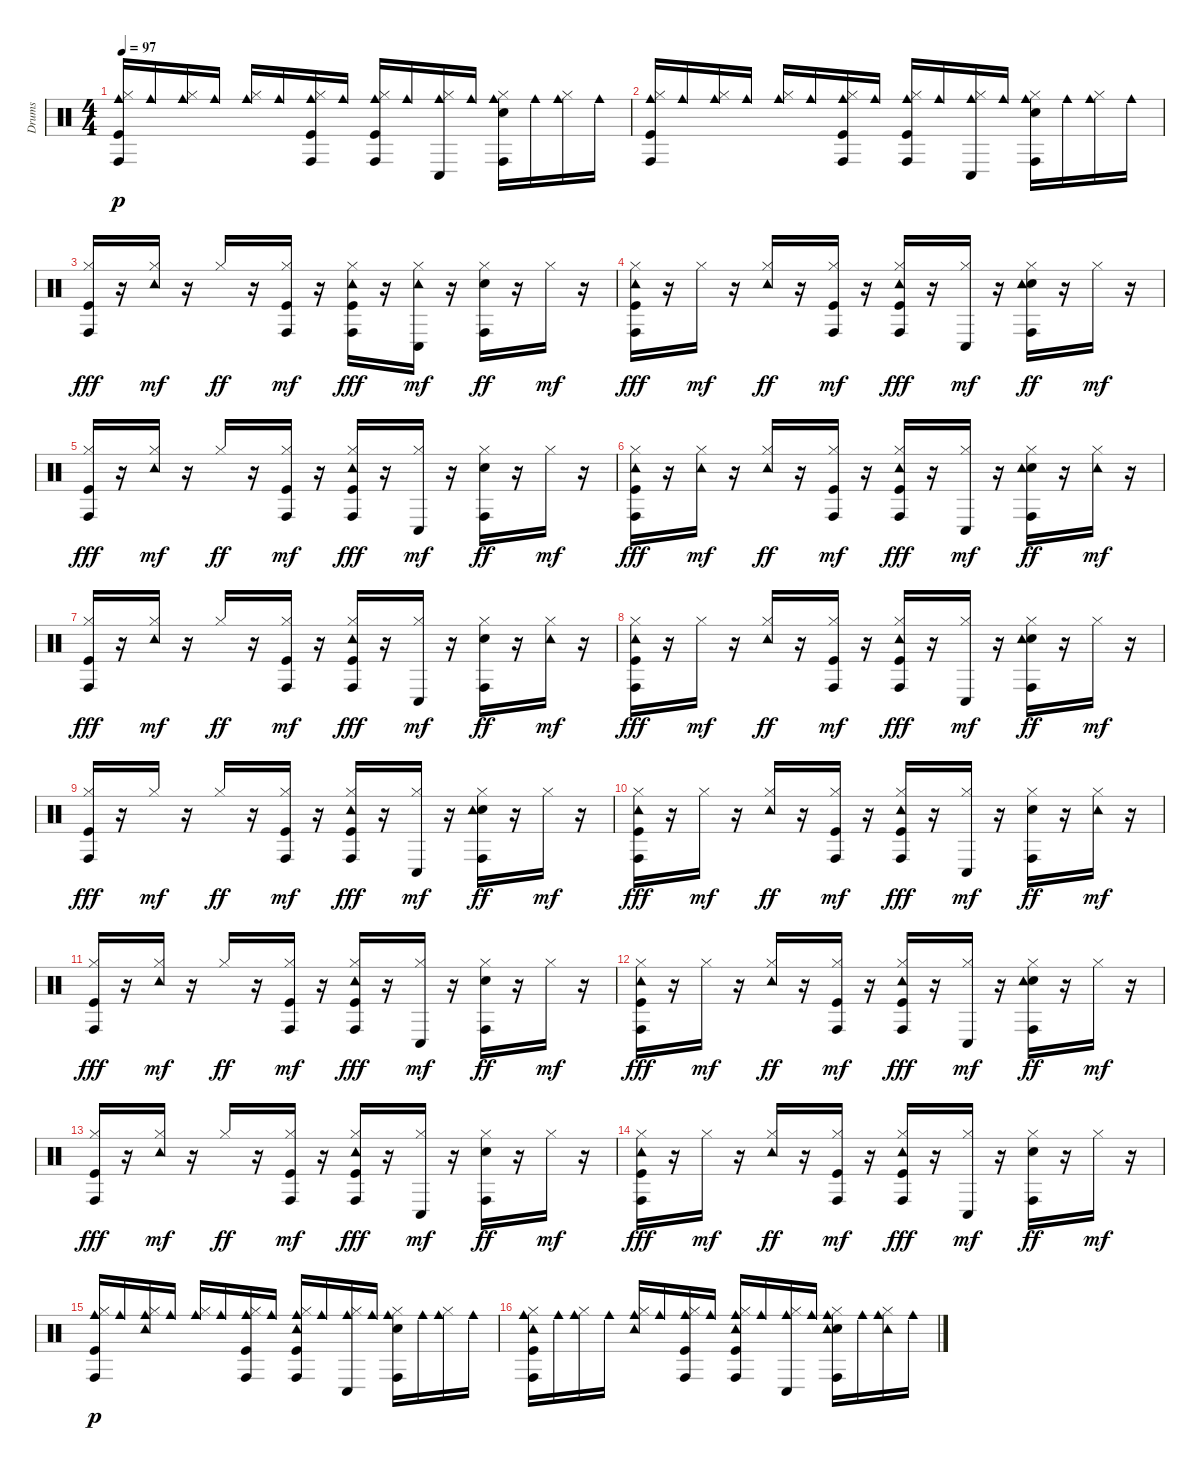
\track ("Drums" "Drums") {instrument percussion}
\staff {score}
\articulation defaults
\ts (4 4)
\tempo 97
\clef neutral
\ks c
("Kick (hit)" "Hi-Hat (closed)" "Cowbell medium (hit)" "Conga high (hit)").16{dy p} "Cowbell medium (hit)".16 ("Hi-Hat (closed)" "Cowbell medium (hit)").16 "Cowbell medium (hit)".16 ("Hi-Hat (closed)" "Cowbell medium (hit)").16 "Cowbell medium (hit)".16 ("Kick (hit)" "Hi-Hat (closed)" "Cowbell medium (hit)" "Conga high (hit)").16 "Cowbell medium (hit)".16 ("Kick (hit)" "Hi-Hat (closed)" "Cowbell medium (hit)" "Conga high (hit)").16 "Cowbell medium (hit)".16 ("Conga low (hit)" "Hi-Hat (closed)" "Cowbell medium (hit)").16 "Cowbell medium (hit)".16 ("Conga high (hit)" "Snare (hit) 2" "Hi-Hat (closed)" "Cowbell medium (hit)").16 "Cowbell medium (hit)".16 ("Hi-Hat (closed)" "Cowbell medium (hit)").16 "Cowbell medium (hit)".16 |
("Kick (hit)" "Hi-Hat (closed)" "Cowbell medium (hit)" "Conga high (hit)").16 "Cowbell medium (hit)".16 ("Hi-Hat (closed)" "Cowbell medium (hit)").16 "Cowbell medium (hit)".16 ("Hi-Hat (closed)" "Cowbell medium (hit)").16 "Cowbell medium (hit)".16 ("Kick (hit)" "Hi-Hat (closed)" "Cowbell medium (hit)" "Conga high (hit)").16 "Cowbell medium (hit)".16 ("Kick (hit)" "Hi-Hat (closed)" "Cowbell medium (hit)" "Conga high (hit)").16 "Cowbell medium (hit)".16 ("Conga low (hit)" "Hi-Hat (closed)" "Cowbell medium (hit)").16 "Cowbell medium (hit)".16 ("Conga high (hit)" "Snare (hit) 2" "Hi-Hat (closed)" "Cowbell medium (hit)").16 "Cowbell medium (hit)".16 ("Hi-Hat (closed)" "Cowbell medium (hit)").16 "Cowbell medium (hit)".16 |
("Kick (hit)" "Hi-Hat (closed)" "Conga high (hit)").16{dy fff} r.16 ("Hi-Hat (closed)" "Tambourine (hit)").16{dy mf} r.16 "Hi-Hat (closed)".16{dy ff} r.16 ("Kick (hit)" "Hi-Hat (closed)" "Conga high (hit)").16{dy mf} r.16 ("Kick (hit)" "Hi-Hat (closed)" "Tambourine (hit)" "Conga high (hit)").16{dy fff} r.16 ("Conga low (hit)" "Hi-Hat (closed)" "Tambourine (hit)").16{dy mf} r.16 ("Conga high (hit)" "Snare (hit) 2" "Hi-Hat (closed)").16{dy ff} r.16 "Hi-Hat (closed)".16{dy mf} r.16 |
("Kick (hit)" "Hi-Hat (closed)" "Tambourine (hit)" "Conga high (hit)").16{dy fff} r.16 "Hi-Hat (closed)".16{dy mf} r.16 ("Hi-Hat (closed)" "Tambourine (hit)").16{dy ff} r.16 ("Kick (hit)" "Hi-Hat (closed)" "Conga high (hit)").16{dy mf} r.16 ("Kick (hit)" "Hi-Hat (closed)" "Tambourine (hit)" "Conga high (hit)").16{dy fff} r.16 ("Conga low (hit)" "Hi-Hat (closed)").16{dy mf} r.16 ("Conga high (hit)" "Snare (hit) 2" "Hi-Hat (closed)" "Tambourine (hit)").16{dy ff} r.16 "Hi-Hat (closed)".16{dy mf} r.16 |
("Kick (hit)" "Hi-Hat (closed)" "Conga high (hit)").16{dy fff} r.16 ("Hi-Hat (closed)" "Tambourine (hit)").16{dy mf} r.16 "Hi-Hat (closed)".16{dy ff} r.16 ("Kick (hit)" "Hi-Hat (closed)" "Conga high (hit)").16{dy mf} r.16 ("Kick (hit)" "Hi-Hat (closed)" "Tambourine (hit)" "Conga high (hit)").16{dy fff} r.16 ("Conga low (hit)" "Hi-Hat (closed)").16{dy mf} r.16 ("Conga high (hit)" "Snare (hit) 2" "Hi-Hat (closed)").16{dy ff} r.16 "Hi-Hat (closed)".16{dy mf} r.16 |
("Kick (hit)" "Hi-Hat (closed)" "Tambourine (hit)" "Conga high (hit)").16{dy fff} r.16 ("Hi-Hat (closed)" "Tambourine (hit)").16{dy mf} r.16 ("Hi-Hat (closed)" "Tambourine (hit)").16{dy ff} r.16 ("Kick (hit)" "Hi-Hat (closed)" "Conga high (hit)").16{dy mf} r.16 ("Kick (hit)" "Hi-Hat (closed)" "Tambourine (hit)" "Conga high (hit)").16{dy fff} r.16 ("Conga low (hit)" "Hi-Hat (closed)").16{dy mf} r.16 ("Conga high (hit)" "Snare (hit) 2" "Hi-Hat (closed)" "Tambourine (hit)").16{dy ff} r.16 ("Hi-Hat (closed)" "Tambourine (hit)").16{dy mf} r.16 |
("Kick (hit)" "Hi-Hat (closed)" "Conga high (hit)").16{dy fff} r.16 ("Hi-Hat (closed)" "Tambourine (hit)").16{dy mf} r.16 "Hi-Hat (closed)".16{dy ff} r.16 ("Kick (hit)" "Hi-Hat (closed)" "Conga high (hit)").16{dy mf} r.16 ("Kick (hit)" "Hi-Hat (closed)" "Tambourine (hit)" "Conga high (hit)").16{dy fff} r.16 ("Conga low (hit)" "Hi-Hat (closed)").16{dy mf} r.16 ("Conga high (hit)" "Snare (hit) 2" "Hi-Hat (closed)").16{dy ff} r.16 ("Hi-Hat (closed)" "Tambourine (hit)").16{dy mf} r.16 |
("Kick (hit)" "Hi-Hat (closed)" "Tambourine (hit)" "Conga high (hit)").16{dy fff} r.16 "Hi-Hat (closed)".16{dy mf} r.16 ("Hi-Hat (closed)" "Tambourine (hit)").16{dy ff} r.16 ("Kick (hit)" "Hi-Hat (closed)" "Conga high (hit)").16{dy mf} r.16 ("Kick (hit)" "Hi-Hat (closed)" "Tambourine (hit)" "Conga high (hit)").16{dy fff} r.16 ("Conga low (hit)" "Hi-Hat (closed)").16{dy mf} r.16 ("Conga high (hit)" "Snare (hit) 2" "Hi-Hat (closed)" "Tambourine (hit)").16{dy ff} r.16 "Hi-Hat (closed)".16{dy mf} r.16 |
("Kick (hit)" "Hi-Hat (closed)" "Conga high (hit)").16{dy fff} r.16 "Hi-Hat (closed)".16{dy mf} r.16 "Hi-Hat (closed)".16{dy ff} r.16 ("Kick (hit)" "Hi-Hat (closed)" "Conga high (hit)").16{dy mf} r.16 ("Kick (hit)" "Hi-Hat (closed)" "Tambourine (hit)" "Conga high (hit)").16{dy fff} r.16 ("Conga low (hit)" "Hi-Hat (closed)").16{dy mf} r.16 ("Conga high (hit)" "Snare (hit) 2" "Hi-Hat (closed)" "Tambourine (hit)").16{dy ff} r.16 "Hi-Hat (closed)".16{dy mf} r.16 |
("Kick (hit)" "Hi-Hat (closed)" "Tambourine (hit)" "Conga high (hit)").16{dy fff} r.16 "Hi-Hat (closed)".16{dy mf} r.16 ("Hi-Hat (closed)" "Tambourine (hit)").16{dy ff} r.16 ("Kick (hit)" "Hi-Hat (closed)" "Conga high (hit)").16{dy mf} r.16 ("Kick (hit)" "Hi-Hat (closed)" "Tambourine (hit)" "Conga high (hit)").16{dy fff} r.16 ("Conga low (hit)" "Hi-Hat (closed)").16{dy mf} r.16 ("Conga high (hit)" "Snare (hit) 2" "Hi-Hat (closed)").16{dy ff} r.16 ("Hi-Hat (closed)" "Tambourine (hit)").16{dy mf} r.16 |
("Kick (hit)" "Hi-Hat (closed)" "Conga high (hit)").16{dy fff} r.16 ("Hi-Hat (closed)" "Tambourine (hit)").16{dy mf} r.16 "Hi-Hat (closed)".16{dy ff} r.16 ("Kick (hit)" "Hi-Hat (closed)" "Conga high (hit)").16{dy mf} r.16 ("Kick (hit)" "Hi-Hat (closed)" "Tambourine (hit)" "Conga high (hit)").16{dy fff} r.16 ("Conga low (hit)" "Hi-Hat (closed)").16{dy mf} r.16 ("Conga high (hit)" "Snare (hit) 2" "Hi-Hat (closed)").16{dy ff} r.16 "Hi-Hat (closed)".16{dy mf} r.16 |
("Kick (hit)" "Hi-Hat (closed)" "Tambourine (hit)" "Conga high (hit)").16{dy fff} r.16 "Hi-Hat (closed)".16{dy mf} r.16 ("Hi-Hat (closed)" "Tambourine (hit)").16{dy ff} r.16 ("Kick (hit)" "Hi-Hat (closed)" "Conga high (hit)").16{dy mf} r.16 ("Kick (hit)" "Hi-Hat (closed)" "Tambourine (hit)" "Conga high (hit)").16{dy fff} r.16 ("Conga low (hit)" "Hi-Hat (closed)").16{dy mf} r.16 ("Conga high (hit)" "Snare (hit) 2" "Hi-Hat (closed)" "Tambourine (hit)").16{dy ff} r.16 "Hi-Hat (closed)".16{dy mf} r.16 |
("Kick (hit)" "Hi-Hat (closed)" "Conga high (hit)").16{dy fff} r.16 ("Hi-Hat (closed)" "Tambourine (hit)").16{dy mf} r.16 "Hi-Hat (closed)".16{dy ff} r.16 ("Kick (hit)" "Hi-Hat (closed)" "Conga high (hit)").16{dy mf} r.16 ("Kick (hit)" "Hi-Hat (closed)" "Tambourine (hit)" "Conga high (hit)").16{dy fff} r.16 ("Conga low (hit)" "Hi-Hat (closed)").16{dy mf} r.16 ("Conga high (hit)" "Snare (hit) 2" "Hi-Hat (closed)").16{dy ff} r.16 "Hi-Hat (closed)".16{dy mf} r.16 |
("Kick (hit)" "Hi-Hat (closed)" "Tambourine (hit)" "Conga high (hit)").16{dy fff} r.16 "Hi-Hat (closed)".16{dy mf} r.16 ("Hi-Hat (closed)" "Tambourine (hit)").16{dy ff} r.16 ("Kick (hit)" "Hi-Hat (closed)" "Conga high (hit)").16{dy mf} r.16 ("Kick (hit)" "Hi-Hat (closed)" "Tambourine (hit)" "Conga high (hit)").16{dy fff} r.16 ("Conga low (hit)" "Hi-Hat (closed)").16{dy mf} r.16 ("Conga high (hit)" "Snare (hit) 2" "Hi-Hat (closed)").16{dy ff} r.16 "Hi-Hat (closed)".16{dy mf} r.16 |
("Kick (hit)" "Hi-Hat (closed)" "Cowbell medium (hit)" "Conga high (hit)").16{dy p} "Cowbell medium (hit)".16 ("Hi-Hat (closed)" "Tambourine (hit)" "Cowbell medium (hit)").16 "Cowbell medium (hit)".16 ("Hi-Hat (closed)" "Cowbell medium (hit)").16 "Cowbell medium (hit)".16 ("Kick (hit)" "Hi-Hat (closed)" "Cowbell medium (hit)" "Conga high (hit)").16 "Cowbell medium (hit)".16 ("Kick (hit)" "Hi-Hat (closed)" "Tambourine (hit)" "Cowbell medium (hit)" "Conga high (hit)").16 "Cowbell medium (hit)".16 ("Conga low (hit)" "Hi-Hat (closed)" "Cowbell medium (hit)").16 "Cowbell medium (hit)".16 ("Conga high (hit)" "Snare (hit) 2" "Hi-Hat (closed)" "Cowbell medium (hit)").16 "Cowbell medium (hit)".16 ("Hi-Hat (closed)" "Cowbell medium (hit)").16 "Cowbell medium (hit)".16 |
("Kick (hit)" "Hi-Hat (closed)" "Tambourine (hit)" "Cowbell medium (hit)" "Conga high (hit)").16 "Cowbell medium (hit)".16 ("Hi-Hat (closed)" "Cowbell medium (hit)").16 "Cowbell medium (hit)".16 ("Hi-Hat (closed)" "Tambourine (hit)" "Cowbell medium (hit)").16 "Cowbell medium (hit)".16 ("Kick (hit)" "Hi-Hat (closed)" "Cowbell medium (hit)" "Conga high (hit)").16 "Cowbell medium (hit)".16 ("Kick (hit)" "Hi-Hat (closed)" "Tambourine (hit)" "Cowbell medium (hit)" "Conga high (hit)").16 "Cowbell medium (hit)".16 ("Conga low (hit)" "Hi-Hat (closed)" "Cowbell medium (hit)").16 "Cowbell medium (hit)".16 ("Conga high (hit)" "Snare (hit) 2" "Hi-Hat (closed)" "Tambourine (hit)" "Cowbell medium (hit)").16 "Cowbell medium (hit)".16 ("Hi-Hat (closed)" "Tambourine (hit)" "Cowbell medium (hit)").16 "Cowbell medium (hit)".16
